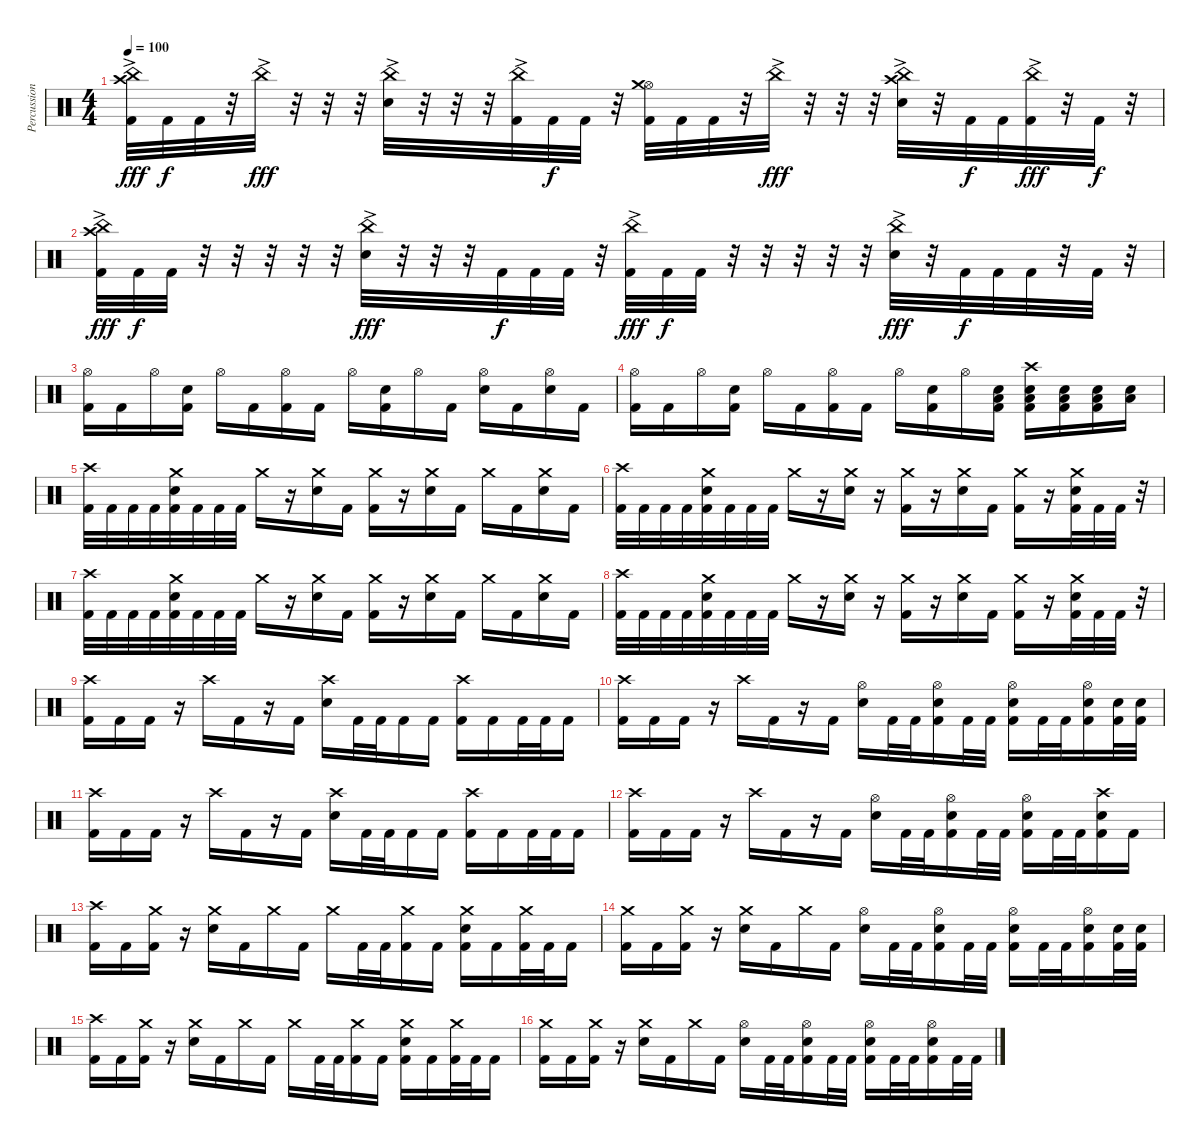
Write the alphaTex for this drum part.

\track ("Percussion" "Percussion") {instrument percussion}
\staff {score}
\articulation defaults
\ts (4 4)
\tempo 100
\clef neutral
\ks c
("China (hit)"{ac} "Crash high (hit)" "Kick (hit) 2").32{dy fff} "Kick (hit) 2".32{dy f} "Kick (hit) 2".32 r.32 "China (hit)"{ac}.32{dy fff} r.32 r.32 r.32 ("China (hit)"{ac} "Electric Snare (hit)").32 r.32 r.32 r.32 ("China (hit)"{ac} "Kick (hit) 2").32 "Kick (hit) 2".32{dy f} "Kick (hit) 2".32 r.32 ("Hi-Hat (open)" "Crash medium (hit)" "Kick (hit) 2").32 "Kick (hit) 2".32 "Kick (hit) 2".32 r.32 "China (hit)"{ac}.32{dy fff} r.32 r.32 r.32 ("China (hit)"{ac} "Crash high (hit)" "Electric Snare (hit)").32 r.32 "Kick (hit) 2".32{dy f} "Kick (hit) 2".32 ("China (hit)"{ac} "Kick (hit) 2").32{dy fff} r.32 "Kick (hit) 2".32{dy f} r.32 |
("China (hit)"{ac} "Crash high (hit)" "Kick (hit) 2").32{dy fff} "Kick (hit) 2".32{dy f} "Kick (hit) 2".32 r.32 r.32 r.32 r.32 r.32 ("China (hit)"{ac} "Electric Snare (hit)").32{dy fff} r.32 r.32 r.32 "Kick (hit) 2".32{dy f} "Kick (hit) 2".32 "Kick (hit) 2".32 r.32 ("China (hit)"{ac} "Kick (hit) 2").32{dy fff} "Kick (hit) 2".32{dy f} "Kick (hit) 2".32 r.32 r.32 r.32 r.32 r.32 ("China (hit)"{ac} "Electric Snare (hit)").32{dy fff} r.32 "Kick (hit) 2".32{dy f} "Kick (hit) 2".32 "Kick (hit) 2".32 r.32 "Kick (hit) 2".32 r.32 |
("Hi-Hat (open)" "Kick (hit) 2").16 "Kick (hit) 2".16 "Hi-Hat (open)".16 ("Electric Snare (hit)" "Kick (hit) 2").16 "Hi-Hat (open)".16 "Kick (hit) 2".16 ("Hi-Hat (open)" "Kick (hit) 2").16 "Kick (hit) 2".16 "Hi-Hat (open)".16 ("Electric Snare (hit)" "Kick (hit) 2").16 "Hi-Hat (open)".16 "Kick (hit) 2".16 ("Hi-Hat (open)" "Electric Snare (hit)").16 "Kick (hit) 2".16 ("Hi-Hat (open)" "Electric Snare (hit)").16 "Kick (hit) 2".16 |
("Hi-Hat (open)" "Kick (hit) 2").16 "Kick (hit) 2".16 "Hi-Hat (open)".16 ("Electric Snare (hit)" "Kick (hit) 2").16 "Hi-Hat (open)".16 "Kick (hit) 2".16 ("Hi-Hat (open)" "Kick (hit) 2").16 "Kick (hit) 2".16 "Hi-Hat (open)".16 ("Electric Snare (hit)" "Kick (hit) 2").16 "Hi-Hat (open)".16 ("Low Tom (hit)" "Electric Snare (hit)" "Kick (hit) 2").16 ("Crash high (hit)" "Low Tom (hit)" "Electric Snare (hit)" "Kick (hit) 2").16 ("Low Tom (hit)" "Electric Snare (hit)" "Kick (hit) 2").16 ("Low Tom (hit)" "Electric Snare (hit)" "Kick (hit) 2").16 ("Low Tom (hit)" "Electric Snare (hit)").16 |
("Crash high (hit)" "Kick (hit) 2").32 "Kick (hit) 2".32 "Kick (hit) 2".32 "Kick (hit) 2".32 ("Crash medium (hit)" "Electric Snare (hit)" "Kick (hit) 2").32 "Kick (hit) 2".32 "Kick (hit) 2".32 "Kick (hit) 2".32 "Crash medium (hit)".16 r.16 ("Crash medium (hit)" "Electric Snare (hit)").16 "Kick (hit) 2".16 ("Crash medium (hit)" "Kick (hit) 2").16 r.16 ("Crash medium (hit)" "Electric Snare (hit)").16 "Kick (hit) 2".16 "Crash medium (hit)".16 "Kick (hit) 2".16 ("Crash medium (hit)" "Electric Snare (hit)").16 "Kick (hit) 2".16 |
("Crash high (hit)" "Kick (hit) 2").32 "Kick (hit) 2".32 "Kick (hit) 2".32 "Kick (hit) 2".32 ("Crash medium (hit)" "Electric Snare (hit)" "Kick (hit) 2").32 "Kick (hit) 2".32 "Kick (hit) 2".32 "Kick (hit) 2".32 "Crash medium (hit)".16 r.16 ("Crash medium (hit)" "Electric Snare (hit)").16 r.16 ("Crash medium (hit)" "Kick (hit) 2").16 r.16 ("Crash medium (hit)" "Electric Snare (hit)").16 "Kick (hit) 2".16 ("Crash medium (hit)" "Kick (hit) 2").16 r.16 ("Crash medium (hit)" "Electric Snare (hit)" "Kick (hit) 2").32 "Kick (hit) 2".32 "Kick (hit) 2".32 r.32 |
("Crash high (hit)" "Kick (hit) 2").32 "Kick (hit) 2".32 "Kick (hit) 2".32 "Kick (hit) 2".32 ("Crash medium (hit)" "Electric Snare (hit)" "Kick (hit) 2").32 "Kick (hit) 2".32 "Kick (hit) 2".32 "Kick (hit) 2".32 "Crash medium (hit)".16 r.16 ("Crash medium (hit)" "Electric Snare (hit)").16 "Kick (hit) 2".16 ("Crash medium (hit)" "Kick (hit) 2").16 r.16 ("Crash medium (hit)" "Electric Snare (hit)").16 "Kick (hit) 2".16 "Crash medium (hit)".16 "Kick (hit) 2".16 ("Crash medium (hit)" "Electric Snare (hit)").16 "Kick (hit) 2".16 |
("Crash high (hit)" "Kick (hit) 2").32 "Kick (hit) 2".32 "Kick (hit) 2".32 "Kick (hit) 2".32 ("Crash medium (hit)" "Electric Snare (hit)" "Kick (hit) 2").32 "Kick (hit) 2".32 "Kick (hit) 2".32 "Kick (hit) 2".32 "Crash medium (hit)".16 r.16 ("Crash medium (hit)" "Electric Snare (hit)").16 r.16 ("Crash medium (hit)" "Kick (hit) 2").16 r.16 ("Crash medium (hit)" "Electric Snare (hit)").16 "Kick (hit) 2".16 ("Crash medium (hit)" "Kick (hit) 2").16 r.16 ("Crash medium (hit)" "Electric Snare (hit)" "Kick (hit) 2").32 "Kick (hit) 2".32 "Kick (hit) 2".32 r.32 |
("Crash high (hit)" "Kick (hit) 2").16 "Kick (hit) 2".16 "Kick (hit) 2".16 r.16 "Crash high (hit)".16 "Kick (hit) 2".16 r.16 "Kick (hit) 2".16 ("Crash high (hit)" "Electric Snare (hit)").16 "Kick (hit) 2".32 "Kick (hit) 2".32 "Kick (hit) 2".16 "Kick (hit) 2".16 ("Crash high (hit)" "Kick (hit) 2").16 "Kick (hit) 2".16 "Kick (hit) 2".32 "Kick (hit) 2".32 "Kick (hit) 2".16 |
("Crash high (hit)" "Kick (hit) 2").16 "Kick (hit) 2".16 "Kick (hit) 2".16 r.16 "Crash high (hit)".16 "Kick (hit) 2".16 r.16 "Kick (hit) 2".16 ("Hi-Hat (open)" "Electric Snare (hit)").16 "Kick (hit) 2".32 "Kick (hit) 2".32 ("Hi-Hat (open)" "Electric Snare (hit)" "Kick (hit) 2").16 "Kick (hit) 2".32 "Kick (hit) 2".32 ("Hi-Hat (open)" "Electric Snare (hit)" "Kick (hit) 2").16 "Kick (hit) 2".32 "Kick (hit) 2".32 ("Hi-Hat (open)" "Electric Snare (hit)" "Kick (hit) 2").16 ("Electric Snare (hit)" "Kick (hit) 2").32 ("Electric Snare (hit)" "Kick (hit) 2").32 |
("Crash high (hit)" "Kick (hit) 2").16 "Kick (hit) 2".16 "Kick (hit) 2".16 r.16 "Crash high (hit)".16 "Kick (hit) 2".16 r.16 "Kick (hit) 2".16 ("Crash high (hit)" "Electric Snare (hit)").16 "Kick (hit) 2".32 "Kick (hit) 2".32 "Kick (hit) 2".16 "Kick (hit) 2".16 ("Crash high (hit)" "Kick (hit) 2").16 "Kick (hit) 2".16 "Kick (hit) 2".32 "Kick (hit) 2".32 "Kick (hit) 2".16 |
("Crash high (hit)" "Kick (hit) 2").16 "Kick (hit) 2".16 "Kick (hit) 2".16 r.16 "Crash high (hit)".16 "Kick (hit) 2".16 r.16 "Kick (hit) 2".16 ("Hi-Hat (open)" "Electric Snare (hit)").16 "Kick (hit) 2".32 "Kick (hit) 2".32 ("Hi-Hat (open)" "Electric Snare (hit)" "Kick (hit) 2").16 "Kick (hit) 2".32 "Kick (hit) 2".32 ("Hi-Hat (open)" "Electric Snare (hit)" "Kick (hit) 2").16 "Kick (hit) 2".32 "Kick (hit) 2".32 ("Crash high (hit)" "Electric Snare (hit)" "Kick (hit) 2").16 "Kick (hit) 2".16 |
("Crash high (hit)" "Kick (hit) 2").16 "Kick (hit) 2".16 ("Crash medium (hit)" "Kick (hit) 2").16 r.16 ("Crash medium (hit)" "Electric Snare (hit)").16 "Kick (hit) 2".16 "Crash medium (hit)".16 "Kick (hit) 2".16 "Crash medium (hit)".16 "Kick (hit) 2".32 "Kick (hit) 2".32 ("Crash medium (hit)" "Kick (hit) 2").16 "Kick (hit) 2".16 ("Crash medium (hit)" "Electric Snare (hit)" "Kick (hit) 2").16 "Kick (hit) 2".16 ("Crash medium (hit)" "Kick (hit) 2").32 "Kick (hit) 2".32 "Kick (hit) 2".16 |
("Crash medium (hit)" "Kick (hit) 2").16 "Kick (hit) 2".16 ("Crash medium (hit)" "Kick (hit) 2").16 r.16 ("Crash medium (hit)" "Electric Snare (hit)").16 "Kick (hit) 2".16 "Crash medium (hit)".16 "Kick (hit) 2".16 ("Hi-Hat (open)" "Electric Snare (hit)").16 "Kick (hit) 2".32 "Kick (hit) 2".32 ("Hi-Hat (open)" "Electric Snare (hit)" "Kick (hit) 2").16 "Kick (hit) 2".32 "Kick (hit) 2".32 ("Hi-Hat (open)" "Electric Snare (hit)" "Kick (hit) 2").16 "Kick (hit) 2".32 "Kick (hit) 2".32 ("Hi-Hat (open)" "Electric Snare (hit)" "Kick (hit) 2").16 ("Electric Snare (hit)" "Kick (hit) 2").32 ("Electric Snare (hit)" "Kick (hit) 2").32 |
("Crash high (hit)" "Kick (hit) 2").16 "Kick (hit) 2".16 ("Crash medium (hit)" "Kick (hit) 2").16 r.16 ("Crash medium (hit)" "Electric Snare (hit)").16 "Kick (hit) 2".16 "Crash medium (hit)".16 "Kick (hit) 2".16 "Crash medium (hit)".16 "Kick (hit) 2".32 "Kick (hit) 2".32 ("Crash medium (hit)" "Kick (hit) 2").16 "Kick (hit) 2".16 ("Crash medium (hit)" "Electric Snare (hit)" "Kick (hit) 2").16 "Kick (hit) 2".16 ("Crash medium (hit)" "Kick (hit) 2").32 "Kick (hit) 2".32 "Kick (hit) 2".16 |
("Crash medium (hit)" "Kick (hit) 2").16 "Kick (hit) 2".16 ("Crash medium (hit)" "Kick (hit) 2").16 r.16 ("Crash medium (hit)" "Electric Snare (hit)").16 "Kick (hit) 2".16 "Crash medium (hit)".16 "Kick (hit) 2".16 ("Hi-Hat (open)" "Electric Snare (hit)").16 "Kick (hit) 2".32 "Kick (hit) 2".32 ("Hi-Hat (open)" "Electric Snare (hit)" "Kick (hit) 2").16 "Kick (hit) 2".32 "Kick (hit) 2".32 ("Hi-Hat (open)" "Electric Snare (hit)" "Kick (hit) 2").16 "Kick (hit) 2".32 "Kick (hit) 2".32 ("Hi-Hat (open)" "Electric Snare (hit)" "Kick (hit) 2").16 "Kick (hit) 2".32 "Kick (hit) 2".32
